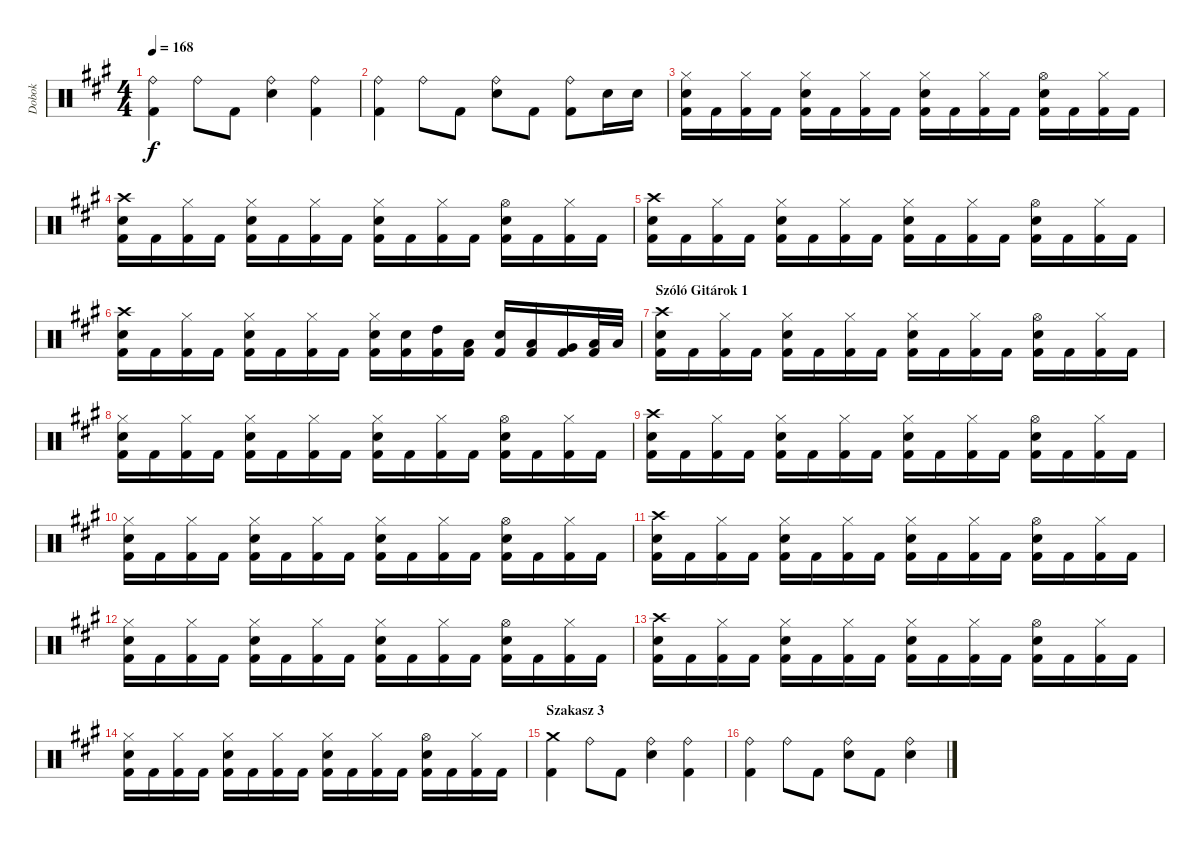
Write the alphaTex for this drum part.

\track ("Dobok" "Dobok") {instrument percussion}
\staff {score}
\articulation defaults
\ts (4 4)
\tempo 168
\clef neutral
\ks f#minor
("Ride (bell)" "Kick (hit) 2").4{dy f} "Ride (bell)".8 "Kick (hit) 2".8 ("Ride (bell)" "Snare (hit) 2").4 ("Ride (bell)" "Kick (hit) 2").4 |
("Ride (bell)" "Kick (hit) 2").4 "Ride (bell)".8 "Kick (hit) 2".8 ("Ride (bell)" "Snare (hit) 2").8 "Kick (hit) 2".8 ("Ride (bell)" "Kick (hit) 2").8 "Snare (hit) 2".16 "Snare (hit) 2".16 |
("Hi-Hat (closed)" "Snare (hit) 2" "Kick (hit) 2").16 "Kick (hit) 2".16 ("Hi-Hat (closed)" "Kick (hit) 2").16 "Kick (hit) 2".16 ("Hi-Hat (closed)" "Snare (hit) 2" "Kick (hit) 2").16 "Kick (hit) 2".16 ("Hi-Hat (closed)" "Kick (hit) 2").16 "Kick (hit) 2".16 ("Hi-Hat (closed)" "Snare (hit) 2" "Kick (hit) 2").16 "Kick (hit) 2".16 ("Hi-Hat (closed)" "Kick (hit) 2").16 "Kick (hit) 2".16 ("Hi-Hat (open)" "Snare (hit) 2" "Kick (hit) 2").16 "Kick (hit) 2".16 ("Hi-Hat (closed)" "Kick (hit) 2").16 "Kick (hit) 2".16 |
("Crash high (hit)" "Snare (hit) 2" "Kick (hit) 2").16 "Kick (hit) 2".16 ("Hi-Hat (closed)" "Kick (hit) 2").16 "Kick (hit) 2".16 ("Hi-Hat (closed)" "Snare (hit) 2" "Kick (hit) 2").16 "Kick (hit) 2".16 ("Hi-Hat (closed)" "Kick (hit) 2").16 "Kick (hit) 2".16 ("Hi-Hat (closed)" "Snare (hit) 2" "Kick (hit) 2").16 "Kick (hit) 2".16 ("Hi-Hat (closed)" "Kick (hit) 2").16 "Kick (hit) 2".16 ("Hi-Hat (open)" "Snare (hit) 2" "Kick (hit) 2").16 "Kick (hit) 2".16 ("Hi-Hat (closed)" "Kick (hit) 2").16 "Kick (hit) 2".16 |
("Crash high (hit)" "Snare (hit) 2" "Kick (hit) 2").16 "Kick (hit) 2".16 ("Hi-Hat (closed)" "Kick (hit) 2").16 "Kick (hit) 2".16 ("Hi-Hat (closed)" "Snare (hit) 2" "Kick (hit) 2").16 "Kick (hit) 2".16 ("Hi-Hat (closed)" "Kick (hit) 2").16 "Kick (hit) 2".16 ("Hi-Hat (closed)" "Snare (hit) 2" "Kick (hit) 2").16 "Kick (hit) 2".16 ("Hi-Hat (closed)" "Kick (hit) 2").16 "Kick (hit) 2".16 ("Hi-Hat (open)" "Snare (hit) 2" "Kick (hit) 2").16 "Kick (hit) 2".16 ("Hi-Hat (closed)" "Kick (hit) 2").16 "Kick (hit) 2".16 |
("Crash high (hit)" "Snare (hit) 2" "Kick (hit) 2").16 "Kick (hit) 2".16 ("Hi-Hat (closed)" "Kick (hit) 2").16 "Kick (hit) 2".16 ("Hi-Hat (closed)" "Snare (hit) 2" "Kick (hit) 2").16 "Kick (hit) 2".16 ("Hi-Hat (closed)" "Kick (hit) 2").16 "Kick (hit) 2".16 ("Hi-Hat (closed)" "Snare (hit) 2" "Kick (hit) 2").16 ("Snare (hit) 2" "Kick (hit) 2").16 ("High Tom (hit)" "Kick (hit) 2").16 ("Low Tom (hit)" "Kick (hit) 2").16 ("Snare (hit) 2" "Kick (hit) 2").16 ("Low Tom (hit)" "Kick (hit) 2").16 ("Very Low Tom (hit)" "Kick (hit) 2").16 ("Low Floor Tom (hit)" "Kick (hit) 2").32 "Low Floor Tom (hit)".32 |
\section ("" "Szóló Gitárok 1")
("Crash high (hit)" "Snare (hit) 2" "Kick (hit) 2").16 "Kick (hit) 2".16 ("Hi-Hat (closed)" "Kick (hit) 2").16 "Kick (hit) 2".16 ("Hi-Hat (closed)" "Snare (hit) 2" "Kick (hit) 2").16 "Kick (hit) 2".16 ("Hi-Hat (closed)" "Kick (hit) 2").16 "Kick (hit) 2".16 ("Hi-Hat (closed)" "Snare (hit) 2" "Kick (hit) 2").16 "Kick (hit) 2".16 ("Hi-Hat (closed)" "Kick (hit) 2").16 "Kick (hit) 2".16 ("Hi-Hat (open)" "Snare (hit) 2" "Kick (hit) 2").16 "Kick (hit) 2".16 ("Hi-Hat (closed)" "Kick (hit) 2").16 "Kick (hit) 2".16 |
("Hi-Hat (closed)" "Snare (hit) 2" "Kick (hit) 2").16 "Kick (hit) 2".16 ("Hi-Hat (closed)" "Kick (hit) 2").16 "Kick (hit) 2".16 ("Hi-Hat (closed)" "Snare (hit) 2" "Kick (hit) 2").16 "Kick (hit) 2".16 ("Hi-Hat (closed)" "Kick (hit) 2").16 "Kick (hit) 2".16 ("Hi-Hat (closed)" "Snare (hit) 2" "Kick (hit) 2").16 "Kick (hit) 2".16 ("Hi-Hat (closed)" "Kick (hit) 2").16 "Kick (hit) 2".16 ("Hi-Hat (open)" "Snare (hit) 2" "Kick (hit) 2").16 "Kick (hit) 2".16 ("Hi-Hat (closed)" "Kick (hit) 2").16 "Kick (hit) 2".16 |
("Crash high (hit)" "Snare (hit) 2" "Kick (hit) 2").16 "Kick (hit) 2".16 ("Hi-Hat (closed)" "Kick (hit) 2").16 "Kick (hit) 2".16 ("Hi-Hat (closed)" "Snare (hit) 2" "Kick (hit) 2").16 "Kick (hit) 2".16 ("Hi-Hat (closed)" "Kick (hit) 2").16 "Kick (hit) 2".16 ("Hi-Hat (closed)" "Snare (hit) 2" "Kick (hit) 2").16 "Kick (hit) 2".16 ("Hi-Hat (closed)" "Kick (hit) 2").16 "Kick (hit) 2".16 ("Hi-Hat (open)" "Snare (hit) 2" "Kick (hit) 2").16 "Kick (hit) 2".16 ("Hi-Hat (closed)" "Kick (hit) 2").16 "Kick (hit) 2".16 |
("Hi-Hat (closed)" "Snare (hit) 2" "Kick (hit) 2").16 "Kick (hit) 2".16 ("Hi-Hat (closed)" "Kick (hit) 2").16 "Kick (hit) 2".16 ("Hi-Hat (closed)" "Snare (hit) 2" "Kick (hit) 2").16 "Kick (hit) 2".16 ("Hi-Hat (closed)" "Kick (hit) 2").16 "Kick (hit) 2".16 ("Hi-Hat (closed)" "Snare (hit) 2" "Kick (hit) 2").16 "Kick (hit) 2".16 ("Hi-Hat (closed)" "Kick (hit) 2").16 "Kick (hit) 2".16 ("Hi-Hat (open)" "Snare (hit) 2" "Kick (hit) 2").16 "Kick (hit) 2".16 ("Hi-Hat (closed)" "Kick (hit) 2").16 "Kick (hit) 2".16 |
("Crash high (hit)" "Snare (hit) 2" "Kick (hit) 2").16 "Kick (hit) 2".16 ("Hi-Hat (closed)" "Kick (hit) 2").16 "Kick (hit) 2".16 ("Hi-Hat (closed)" "Snare (hit) 2" "Kick (hit) 2").16 "Kick (hit) 2".16 ("Hi-Hat (closed)" "Kick (hit) 2").16 "Kick (hit) 2".16 ("Hi-Hat (closed)" "Snare (hit) 2" "Kick (hit) 2").16 "Kick (hit) 2".16 ("Hi-Hat (closed)" "Kick (hit) 2").16 "Kick (hit) 2".16 ("Hi-Hat (open)" "Snare (hit) 2" "Kick (hit) 2").16 "Kick (hit) 2".16 ("Hi-Hat (closed)" "Kick (hit) 2").16 "Kick (hit) 2".16 |
("Hi-Hat (closed)" "Snare (hit) 2" "Kick (hit) 2").16 "Kick (hit) 2".16 ("Hi-Hat (closed)" "Kick (hit) 2").16 "Kick (hit) 2".16 ("Hi-Hat (closed)" "Snare (hit) 2" "Kick (hit) 2").16 "Kick (hit) 2".16 ("Hi-Hat (closed)" "Kick (hit) 2").16 "Kick (hit) 2".16 ("Hi-Hat (closed)" "Snare (hit) 2" "Kick (hit) 2").16 "Kick (hit) 2".16 ("Hi-Hat (closed)" "Kick (hit) 2").16 "Kick (hit) 2".16 ("Hi-Hat (open)" "Snare (hit) 2" "Kick (hit) 2").16 "Kick (hit) 2".16 ("Hi-Hat (closed)" "Kick (hit) 2").16 "Kick (hit) 2".16 |
("Crash high (hit)" "Snare (hit) 2" "Kick (hit) 2").16 "Kick (hit) 2".16 ("Hi-Hat (closed)" "Kick (hit) 2").16 "Kick (hit) 2".16 ("Hi-Hat (closed)" "Snare (hit) 2" "Kick (hit) 2").16 "Kick (hit) 2".16 ("Hi-Hat (closed)" "Kick (hit) 2").16 "Kick (hit) 2".16 ("Hi-Hat (closed)" "Snare (hit) 2" "Kick (hit) 2").16 "Kick (hit) 2".16 ("Hi-Hat (closed)" "Kick (hit) 2").16 "Kick (hit) 2".16 ("Hi-Hat (open)" "Snare (hit) 2" "Kick (hit) 2").16 "Kick (hit) 2".16 ("Hi-Hat (closed)" "Kick (hit) 2").16 "Kick (hit) 2".16 |
("Hi-Hat (closed)" "Snare (hit) 2" "Kick (hit) 2").16 "Kick (hit) 2".16 ("Hi-Hat (closed)" "Kick (hit) 2").16 "Kick (hit) 2".16 ("Hi-Hat (closed)" "Snare (hit) 2" "Kick (hit) 2").16 "Kick (hit) 2".16 ("Hi-Hat (closed)" "Kick (hit) 2").16 "Kick (hit) 2".16 ("Hi-Hat (closed)" "Snare (hit) 2" "Kick (hit) 2").16 "Kick (hit) 2".16 ("Hi-Hat (closed)" "Kick (hit) 2").16 "Kick (hit) 2".16 ("Hi-Hat (open)" "Snare (hit) 2" "Kick (hit) 2").16 "Kick (hit) 2".16 ("Hi-Hat (closed)" "Kick (hit) 2").16 "Kick (hit) 2".16 |
\section ("" "Szakasz 3")
("Crash medium (hit)" "Kick (hit) 2").4 "Ride (bell)".8 "Kick (hit) 2".8 ("Ride (bell)" "Snare (hit) 2").4 ("Ride (bell)" "Kick (hit) 2").4 |
("Ride (bell)" "Kick (hit) 2").4 "Ride (bell)".8 "Kick (hit) 2".8 ("Ride (bell)" "Snare (hit) 2").8 "Kick (hit) 2".8 ("Ride (bell)" "Snare (hit) 2").4
